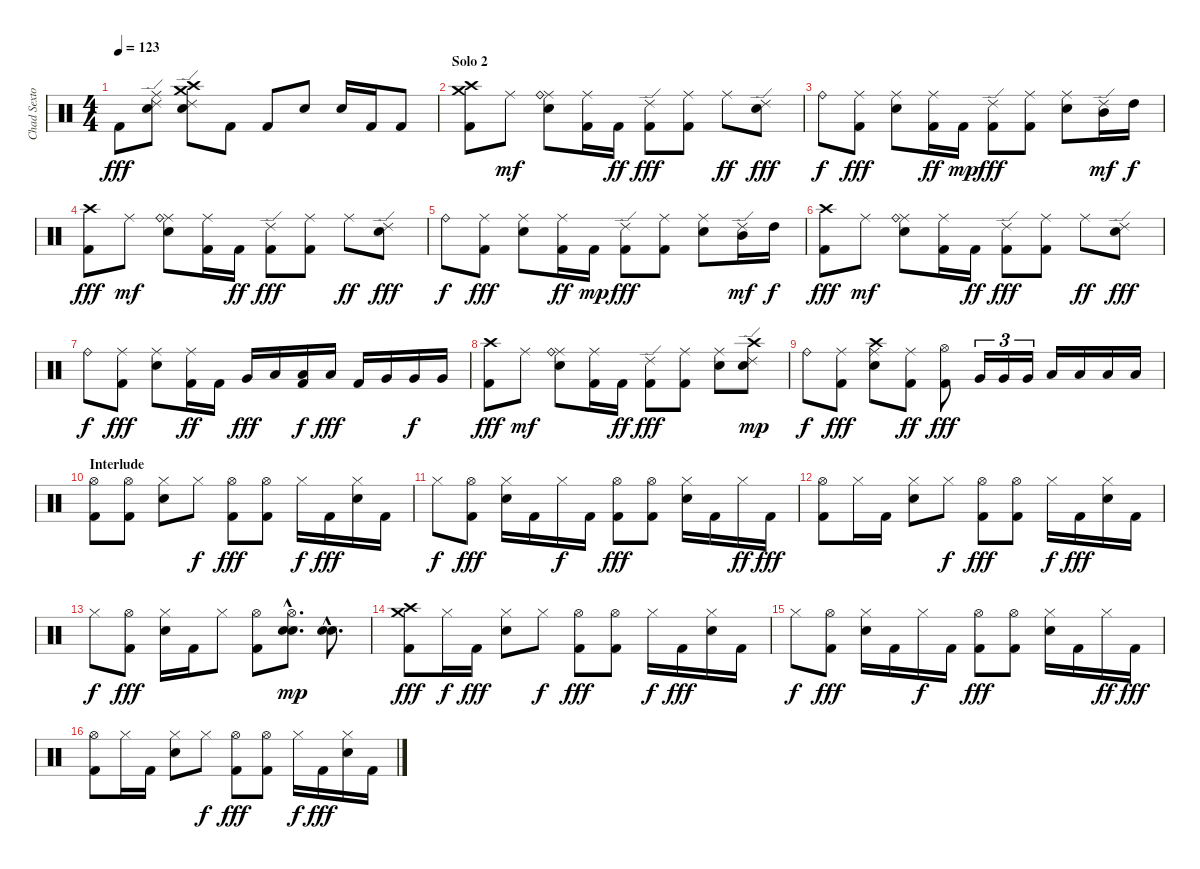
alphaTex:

\track ("Chad Sexton (Drums)" "Chad Sexto") {instrument percussion}
\staff {score}
\articulation defaults
\ts (4 4)
\tempo 123
\clef neutral
\ks c "Kick (hit) 2".8{dy fff}
("Ride (middle)" "Electric Snare (hit)" "Ride (edge) 2").8 ("Crash medium (hit)" "Electric Snare (hit)" "Ride (edge) 2" "Crash high (hit)").8 "Kick (hit) 2".8 "Kick (hit) 2".8 "Electric Snare (hit)".8 "Electric Snare (hit)".16 "Kick (hit) 2".16 "Kick (hit) 2".8 |
\section ("" "Solo 2")
("Crash medium (hit)" "Kick (hit) 2" "Crash high (hit)").8{volume 11} "Ride (middle)".8{dy mf} ("Ride (middle)" "Electric Snare (hit)" "Ride (bell)").8 ("Ride (middle)" "Kick (hit) 2").16 "Kick (hit) 2".16{dy ff} ("Ride (edge) 2" "Kick (hit) 2").8{dy fff} ("Ride (middle)" "Kick (hit) 2").8 "Ride (middle)".8{dy ff} ("Ride (edge) 2" "Electric Snare (hit)").8{dy fff} |
"Ride (bell)".8{dy f} ("Ride (middle)" "Kick (hit) 2").8{dy fff} ("Ride (middle)" "Electric Snare (hit)").8 ("Ride (middle)" "Kick (hit) 2").16{dy ff} "Kick (hit) 2".16{dy mp} ("Ride (edge) 2" "Kick (hit) 2").8{dy fff} ("Ride (middle)" "Kick (hit) 2").8 ("Ride (middle)" "Electric Snare (hit)").8 ("Ride (edge) 2" "Mid Tom (hit)").16{dy mf} "High Tom (hit)".16{dy f} |
("Kick (hit) 2" "Crash high (hit)").8{dy fff} "Ride (middle)".8{dy mf} ("Ride (middle)" "Electric Snare (hit)" "Ride (bell)").8 ("Ride (middle)" "Kick (hit) 2").16 "Kick (hit) 2".16{dy ff} ("Ride (edge) 2" "Kick (hit) 2").8{dy fff} ("Ride (middle)" "Kick (hit) 2").8 "Ride (middle)".8{dy ff} ("Ride (edge) 2" "Electric Snare (hit)").8{dy fff} |
"Ride (bell)".8{dy f} ("Ride (middle)" "Kick (hit) 2").8{dy fff} ("Ride (middle)" "Electric Snare (hit)").8 ("Ride (middle)" "Kick (hit) 2").16{dy ff} "Kick (hit) 2".16{dy mp} ("Ride (edge) 2" "Kick (hit) 2").8{dy fff} ("Ride (middle)" "Kick (hit) 2").8 ("Ride (middle)" "Electric Snare (hit)").8 ("Ride (edge) 2" "Mid Tom (hit)").16{dy mf} "High Tom (hit)".16{dy f} |
("Kick (hit) 2" "Crash high (hit)").8{dy fff} "Ride (middle)".8{dy mf} ("Ride (middle)" "Electric Snare (hit)" "Ride (bell)").8 ("Ride (middle)" "Kick (hit) 2").16 "Kick (hit) 2".16{dy ff} ("Ride (edge) 2" "Kick (hit) 2").8{dy fff} ("Ride (middle)" "Kick (hit) 2").8 "Ride (middle)".8{dy ff} ("Ride (edge) 2" "Electric Snare (hit)").8{dy fff} |
"Ride (bell)".8{dy f} ("Ride (middle)" "Kick (hit) 2").8{dy fff} ("Ride (middle)" "Electric Snare (hit)").8 ("Ride (middle)" "Kick (hit) 2").16{dy ff} "Kick (hit) 2".16 "Very Low Tom (hit)".16{dy fff} "Low Tom (hit)".16 ("Kick (hit) 2" "Low Tom (hit)").16{dy f} "Low Tom (hit)".16{dy fff} "Kick (hit) 2".16 "Very Low Tom (hit)".16 "Very Low Tom (hit)".16{dy f} "Very Low Tom (hit)".16 |
("Kick (hit) 2" "Crash high (hit)").8{dy fff} "Ride (middle)".8{dy mf} ("Ride (middle)" "Electric Snare (hit)" "Ride (bell)").8 ("Ride (middle)" "Kick (hit) 2").16 "Kick (hit) 2".16{dy ff} ("Ride (edge) 2" "Kick (hit) 2").8{dy fff} ("Ride (middle)" "Kick (hit) 2").8 ("Ride (middle)" "Electric Snare (hit)").8 ("Ride (edge) 2" "Electric Snare (hit)" "Crash high (hit)").8{dy mp} |
"Ride (bell)".8{dy f} ("Ride (middle)" "Kick (hit) 2").8{dy fff} ("Ride (middle)" "Electric Snare (hit)" "Crash high (hit)").8 ("Ride (middle)" "Kick (hit) 2").8{dy ff} ("Hi-Hat (open)" "Kick (hit) 2").8{dy fff} "Very Low Tom (hit)".16{tu (3 2)} "Very Low Tom (hit)".16{tu (3 2)} "Very Low Tom (hit)".16{tu (3 2)} "Low Floor Tom (hit)".16 "Low Floor Tom (hit)".16 "Low Floor Tom (hit)".16 "Low Floor Tom (hit)".16 |
\section ("" "Interlude")
("Hi-Hat (open)" "Kick (hit) 2").8 ("Hi-Hat (open)" "Kick (hit) 2").8 ("Hi-Hat (closed)" "Electric Snare (hit)").8 "Hi-Hat (closed)".8{dy f} ("Hi-Hat (open)" "Kick (hit) 2").8{dy fff} ("Hi-Hat (open)" "Kick (hit) 2").8 "Hi-Hat (closed)".16{dy f} "Kick (hit) 2".16{dy fff} ("Hi-Hat (closed)" "Electric Snare (hit)").16 "Kick (hit) 2".16 |
"Hi-Hat (closed)".8{dy f} ("Hi-Hat (open)" "Kick (hit) 2").8{dy fff} ("Hi-Hat (closed)" "Electric Snare (hit)").16 "Kick (hit) 2".16 "Hi-Hat (closed)".16{dy f} "Kick (hit) 2".16 ("Hi-Hat (open)" "Kick (hit) 2").8{dy fff} ("Hi-Hat (open)" "Kick (hit) 2").8 ("Hi-Hat (closed)" "Electric Snare (hit)").16 "Kick (hit) 2".16 "Hi-Hat (closed)".16{dy ff} "Kick (hit) 2".16{dy fff} |
("Hi-Hat (open)" "Kick (hit) 2").8 "Hi-Hat (closed)".16 "Kick (hit) 2".16 ("Hi-Hat (closed)" "Electric Snare (hit)").8 "Hi-Hat (closed)".8{dy f} ("Hi-Hat (open)" "Kick (hit) 2").8{dy fff} ("Hi-Hat (open)" "Kick (hit) 2").8 "Hi-Hat (closed)".16{dy f} "Kick (hit) 2".16{dy fff} ("Hi-Hat (closed)" "Electric Snare (hit)").16 "Kick (hit) 2".16 |
"Hi-Hat (closed)".8{dy f} ("Hi-Hat (open)" "Kick (hit) 2").8{dy fff} ("Hi-Hat (closed)" "Electric Snare (hit)").16 "Kick (hit) 2".16 "Hi-Hat (closed)".8 ("Hi-Hat (open)" "Kick (hit) 2").8 ("Hi-Hat (open)"{hac} "Electric Snare (hit)"{hac} "Snare (hit) 2"{hac}).8{d dy mp} ("Electric Snare (hit)"{hac} "Snare (hit) 2"{hac}).8{d} |
\section ("" "")
("Crash high (hit)" "Kick (hit) 2" "Crash medium (hit)").8{dy fff} "Hi-Hat (closed)".16{dy f} "Kick (hit) 2".16{dy fff} ("Hi-Hat (closed)" "Electric Snare (hit)").8 "Hi-Hat (closed)".8{dy f} ("Hi-Hat (open)" "Kick (hit) 2").8{dy fff} ("Hi-Hat (open)" "Kick (hit) 2").8 "Hi-Hat (closed)".16{dy f} "Kick (hit) 2".16{dy fff} ("Hi-Hat (closed)" "Electric Snare (hit)").16 "Kick (hit) 2".16 |
"Hi-Hat (closed)".8{dy f} ("Hi-Hat (open)" "Kick (hit) 2").8{dy fff} ("Hi-Hat (closed)" "Electric Snare (hit)").16 "Kick (hit) 2".16 "Hi-Hat (closed)".16{dy f} "Kick (hit) 2".16 ("Hi-Hat (open)" "Kick (hit) 2").8{dy fff} ("Hi-Hat (open)" "Kick (hit) 2").8 ("Hi-Hat (closed)" "Electric Snare (hit)").16 "Kick (hit) 2".16 "Hi-Hat (closed)".16{dy ff} "Kick (hit) 2".16{dy fff} |
("Hi-Hat (open)" "Kick (hit) 2").8 "Hi-Hat (closed)".16 "Kick (hit) 2".16 ("Hi-Hat (closed)" "Electric Snare (hit)").8 "Hi-Hat (closed)".8{dy f} ("Hi-Hat (open)" "Kick (hit) 2").8{dy fff} ("Hi-Hat (open)" "Kick (hit) 2").8 "Hi-Hat (closed)".16{dy f} "Kick (hit) 2".16{dy fff} ("Hi-Hat (closed)" "Electric Snare (hit)").16 "Kick (hit) 2".16
